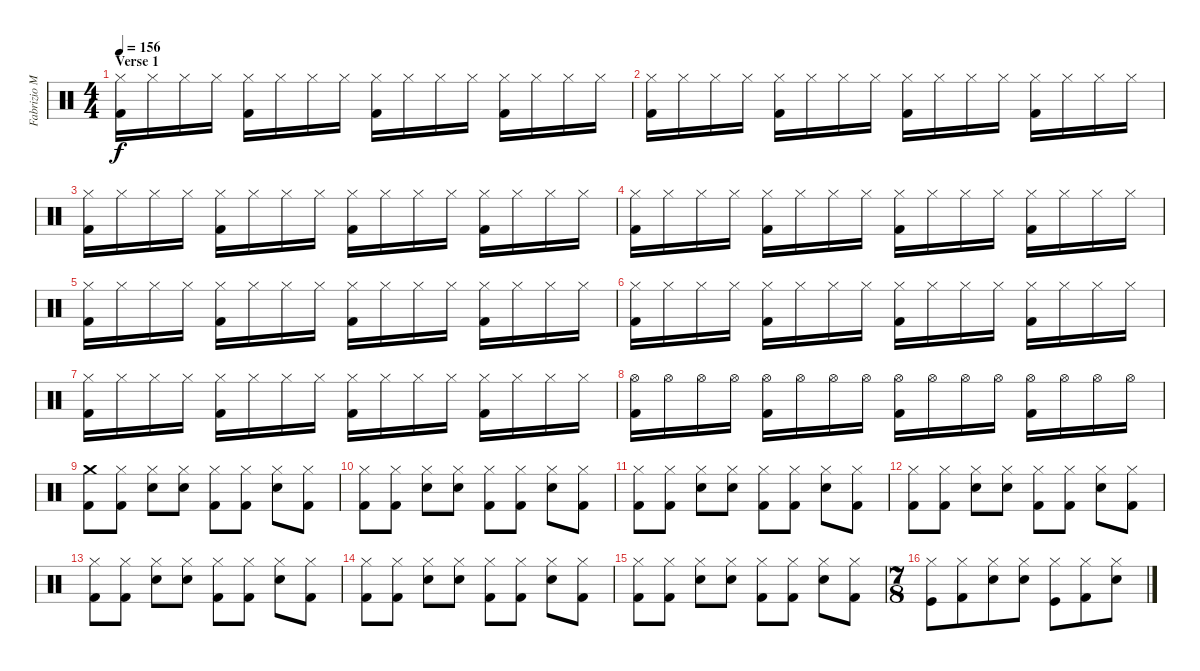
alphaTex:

\track ("Fabrizio Moretti (Drums)" "Fabrizio M") {instrument percussion}
\staff {score}
\articulation defaults
\ts (4 4)
\section ("" "Verse 1")
\tempo 156
\clef neutral
\ks c
("Hi-Hat (closed)" "Kick (hit) 2").16{dy f} "Hi-Hat (closed)".16 "Hi-Hat (closed)".16 "Hi-Hat (closed)".16 ("Hi-Hat (closed)" "Kick (hit) 2").16 "Hi-Hat (closed)".16 "Hi-Hat (closed)".16 "Hi-Hat (closed)".16 ("Hi-Hat (closed)" "Kick (hit) 2").16 "Hi-Hat (closed)".16 "Hi-Hat (closed)".16 "Hi-Hat (closed)".16 ("Hi-Hat (closed)" "Kick (hit) 2").16 "Hi-Hat (closed)".16 "Hi-Hat (closed)".16 "Hi-Hat (closed)".16 |
("Hi-Hat (closed)" "Kick (hit) 2").16 "Hi-Hat (closed)".16 "Hi-Hat (closed)".16 "Hi-Hat (closed)".16 ("Hi-Hat (closed)" "Kick (hit) 2").16 "Hi-Hat (closed)".16 "Hi-Hat (closed)".16 "Hi-Hat (closed)".16 ("Hi-Hat (closed)" "Kick (hit) 2").16 "Hi-Hat (closed)".16 "Hi-Hat (closed)".16 "Hi-Hat (closed)".16 ("Hi-Hat (closed)" "Kick (hit) 2").16 "Hi-Hat (closed)".16 "Hi-Hat (closed)".16 "Hi-Hat (closed)".16 |
("Hi-Hat (closed)" "Kick (hit) 2").16 "Hi-Hat (closed)".16 "Hi-Hat (closed)".16 "Hi-Hat (closed)".16 ("Hi-Hat (closed)" "Kick (hit) 2").16 "Hi-Hat (closed)".16 "Hi-Hat (closed)".16 "Hi-Hat (closed)".16 ("Hi-Hat (closed)" "Kick (hit) 2").16 "Hi-Hat (closed)".16 "Hi-Hat (closed)".16 "Hi-Hat (closed)".16 ("Hi-Hat (closed)" "Kick (hit) 2").16 "Hi-Hat (closed)".16 "Hi-Hat (closed)".16 "Hi-Hat (closed)".16 |
("Hi-Hat (closed)" "Kick (hit) 2").16 "Hi-Hat (closed)".16 "Hi-Hat (closed)".16 "Hi-Hat (closed)".16 ("Hi-Hat (closed)" "Kick (hit) 2").16 "Hi-Hat (closed)".16 "Hi-Hat (closed)".16 "Hi-Hat (closed)".16 ("Hi-Hat (closed)" "Kick (hit) 2").16 "Hi-Hat (closed)".16 "Hi-Hat (closed)".16 "Hi-Hat (closed)".16 ("Hi-Hat (closed)" "Kick (hit) 2").16 "Hi-Hat (closed)".16 "Hi-Hat (closed)".16 "Hi-Hat (closed)".16 |
("Hi-Hat (closed)" "Kick (hit) 2").16 "Hi-Hat (closed)".16 "Hi-Hat (closed)".16 "Hi-Hat (closed)".16 ("Hi-Hat (closed)" "Kick (hit) 2").16 "Hi-Hat (closed)".16 "Hi-Hat (closed)".16 "Hi-Hat (closed)".16 ("Hi-Hat (closed)" "Kick (hit) 2").16 "Hi-Hat (closed)".16 "Hi-Hat (closed)".16 "Hi-Hat (closed)".16 ("Hi-Hat (closed)" "Kick (hit) 2").16 "Hi-Hat (closed)".16 "Hi-Hat (closed)".16 "Hi-Hat (closed)".16 |
("Hi-Hat (closed)" "Kick (hit) 2").16 "Hi-Hat (closed)".16 "Hi-Hat (closed)".16 "Hi-Hat (closed)".16 ("Hi-Hat (closed)" "Kick (hit) 2").16 "Hi-Hat (closed)".16 "Hi-Hat (closed)".16 "Hi-Hat (closed)".16 ("Hi-Hat (closed)" "Kick (hit) 2").16 "Hi-Hat (closed)".16 "Hi-Hat (closed)".16 "Hi-Hat (closed)".16 ("Hi-Hat (closed)" "Kick (hit) 2").16 "Hi-Hat (closed)".16 "Hi-Hat (closed)".16 "Hi-Hat (closed)".16 |
("Hi-Hat (closed)" "Kick (hit) 2").16 "Hi-Hat (closed)".16 "Hi-Hat (closed)".16 "Hi-Hat (closed)".16 ("Hi-Hat (closed)" "Kick (hit) 2").16 "Hi-Hat (closed)".16 "Hi-Hat (closed)".16 "Hi-Hat (closed)".16 ("Hi-Hat (closed)" "Kick (hit) 2").16 "Hi-Hat (closed)".16 "Hi-Hat (closed)".16 "Hi-Hat (closed)".16 ("Hi-Hat (closed)" "Kick (hit) 2").16 "Hi-Hat (closed)".16 "Hi-Hat (closed)".16 "Hi-Hat (closed)".16 |
("Hi-Hat (open)" "Kick (hit) 2").16 "Hi-Hat (open)".16 "Hi-Hat (open)".16 "Hi-Hat (open)".16 ("Hi-Hat (open)" "Kick (hit) 2").16 "Hi-Hat (open)".16 "Hi-Hat (open)".16 "Hi-Hat (open)".16 ("Hi-Hat (open)" "Kick (hit) 2").16 "Hi-Hat (open)".16 "Hi-Hat (open)".16 "Hi-Hat (open)".16 ("Hi-Hat (open)" "Kick (hit) 2").16 "Hi-Hat (open)".16 "Hi-Hat (open)".16 "Hi-Hat (open)".16 |
("Crash medium (hit)" "Kick (hit) 2").8 ("Hi-Hat (closed)" "Kick (hit) 2").8 ("Hi-Hat (closed)" "Snare (hit) 2").8 ("Hi-Hat (closed)" "Snare (hit) 2").8 ("Hi-Hat (closed)" "Kick (hit) 2").8 ("Hi-Hat (closed)" "Kick (hit) 2").8 ("Hi-Hat (closed)" "Snare (hit) 2").8 ("Hi-Hat (closed)" "Kick (hit) 2").8 |
("Hi-Hat (closed)" "Kick (hit) 2").8 ("Hi-Hat (closed)" "Kick (hit) 2").8 ("Hi-Hat (closed)" "Snare (hit) 2").8 ("Hi-Hat (closed)" "Snare (hit) 2").8 ("Hi-Hat (closed)" "Kick (hit) 2").8 ("Hi-Hat (closed)" "Kick (hit) 2").8 ("Hi-Hat (closed)" "Snare (hit) 2").8 ("Hi-Hat (closed)" "Kick (hit) 2").8 |
("Hi-Hat (closed)" "Kick (hit) 2").8 ("Hi-Hat (closed)" "Kick (hit) 2").8 ("Hi-Hat (closed)" "Snare (hit) 2").8 ("Hi-Hat (closed)" "Snare (hit) 2").8 ("Hi-Hat (closed)" "Kick (hit) 2").8 ("Hi-Hat (closed)" "Kick (hit) 2").8 ("Hi-Hat (closed)" "Snare (hit) 2").8 ("Hi-Hat (closed)" "Kick (hit) 2").8 |
("Hi-Hat (closed)" "Kick (hit) 2").8 ("Hi-Hat (closed)" "Kick (hit) 2").8 ("Hi-Hat (closed)" "Snare (hit) 2").8 ("Hi-Hat (closed)" "Snare (hit) 2").8 ("Hi-Hat (closed)" "Kick (hit) 2").8 ("Hi-Hat (closed)" "Kick (hit) 2").8 ("Hi-Hat (closed)" "Snare (hit) 2").8 ("Hi-Hat (closed)" "Kick (hit) 2").8 |
("Hi-Hat (closed)" "Kick (hit) 2").8 ("Hi-Hat (closed)" "Kick (hit) 2").8 ("Hi-Hat (closed)" "Snare (hit) 2").8 ("Hi-Hat (closed)" "Snare (hit) 2").8 ("Hi-Hat (closed)" "Kick (hit) 2").8 ("Hi-Hat (closed)" "Kick (hit) 2").8 ("Hi-Hat (closed)" "Snare (hit) 2").8 ("Hi-Hat (closed)" "Kick (hit) 2").8 |
("Hi-Hat (closed)" "Kick (hit) 2").8 ("Hi-Hat (closed)" "Kick (hit) 2").8 ("Hi-Hat (closed)" "Snare (hit) 2").8 ("Hi-Hat (closed)" "Snare (hit) 2").8 ("Hi-Hat (closed)" "Kick (hit) 2").8 ("Hi-Hat (closed)" "Kick (hit) 2").8 ("Hi-Hat (closed)" "Snare (hit) 2").8 ("Hi-Hat (closed)" "Kick (hit) 2").8 |
("Hi-Hat (closed)" "Kick (hit) 2").8 ("Hi-Hat (closed)" "Kick (hit) 2").8 ("Hi-Hat (closed)" "Snare (hit) 2").8 ("Hi-Hat (closed)" "Snare (hit) 2").8 ("Hi-Hat (closed)" "Kick (hit) 2").8 ("Hi-Hat (closed)" "Kick (hit) 2").8 ("Hi-Hat (closed)" "Snare (hit) 2").8 ("Hi-Hat (closed)" "Kick (hit) 2").8 |
\ts (7 8)
("Hi-Hat (closed)" "Kick (hit)").8 ("Hi-Hat (closed)" "Kick (hit) 2").8 ("Hi-Hat (closed)" "Snare (hit) 2").8 ("Hi-Hat (closed)" "Snare (hit) 2").8 ("Hi-Hat (closed)" "Kick (hit)").8 ("Hi-Hat (closed)" "Kick (hit) 2").8 ("Hi-Hat (closed)" "Snare (hit) 2").8
